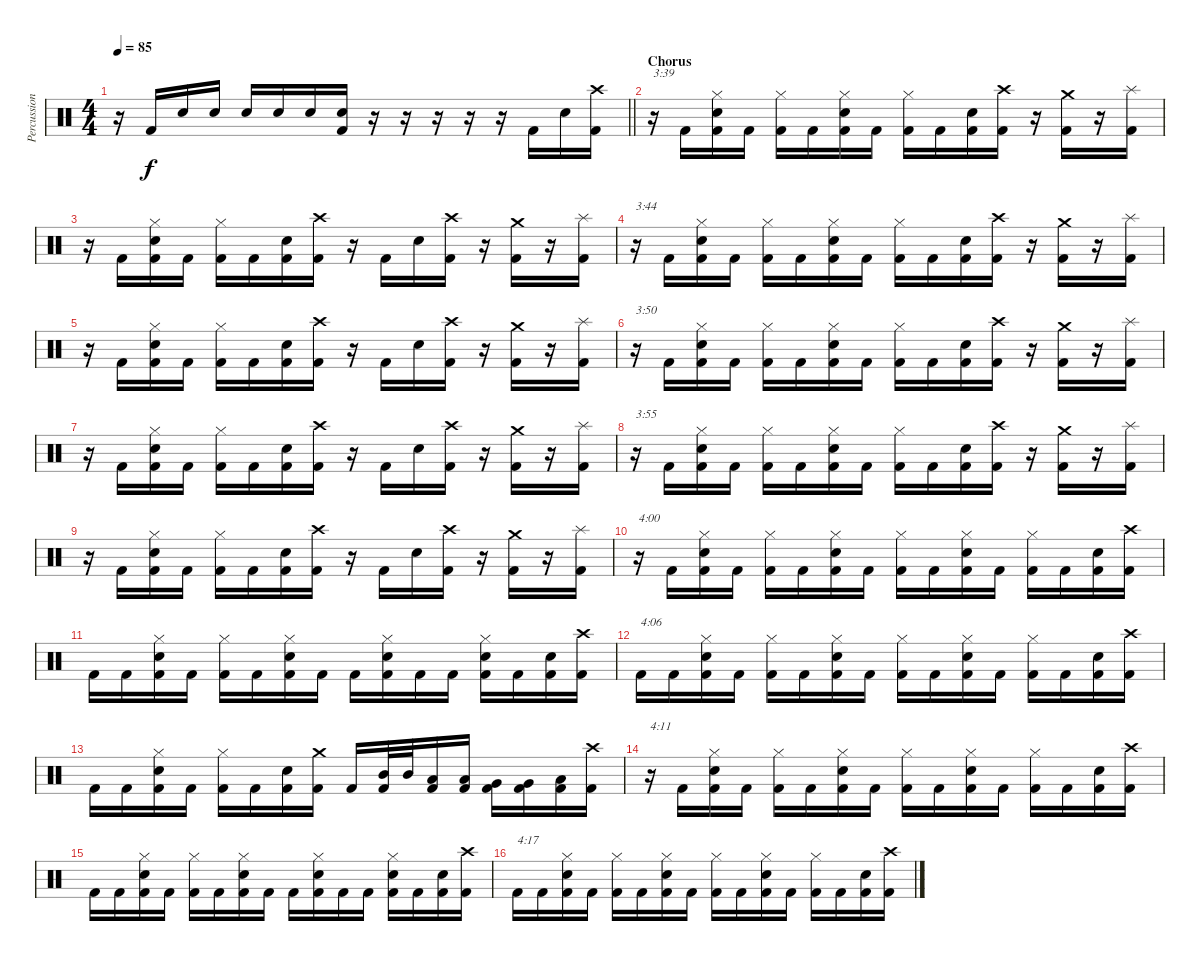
\track ("Percussion" "Percussion") {instrument percussion}
\staff {score}
\articulation defaults
\ts (4 4)
\tempo 85
\clef neutral
\barLineRight lightlight
\ks c
r.16{dy f} "Kick (hit) 2".16 "Snare (hit) 2".16 "Snare (hit) 2".16 "Snare (hit) 2".16 "Snare (hit) 2".16 "Snare (hit) 2".16 ("Snare (hit) 2" "Kick (hit) 2").16 r.16 r.16 r.16 r.16 r.16 "Kick (hit) 2".16 "Snare (hit) 2".16 ("Crash high (hit)" "Kick (hit) 2").16 |
\section ("" "Chorus")
r.16{txt "3:39"} "Kick (hit) 2".16 ("Hi-Hat (closed)" "Snare (hit) 2" "Kick (hit) 2").16 "Kick (hit) 2".16 ("Hi-Hat (closed)" "Kick (hit) 2").16 "Kick (hit) 2".16 ("Hi-Hat (closed)" "Snare (hit) 2" "Kick (hit) 2").16 "Kick (hit) 2".16 ("Hi-Hat (closed)" "Kick (hit) 2").16 "Kick (hit) 2".16 ("Snare (hit) 2" "Kick (hit) 2").16 ("Crash high (hit)" "Kick (hit) 2").16 r.16 ("Crash medium (hit)" "Kick (hit) 2").16 r.16 ("Splash (hit)" "Kick (hit) 2").16 |
r.16 "Kick (hit) 2".16 ("Hi-Hat (closed)" "Snare (hit) 2" "Kick (hit) 2").16 "Kick (hit) 2".16 ("Hi-Hat (closed)" "Kick (hit) 2").16 "Kick (hit) 2".16 ("Snare (hit) 2" "Kick (hit) 2").16 ("Crash high (hit)" "Kick (hit) 2").16 r.16 "Kick (hit) 2".16 "Snare (hit) 2".16 ("Crash high (hit)" "Kick (hit) 2").16 r.16 ("Crash medium (hit)" "Kick (hit) 2").16 r.16 ("Splash (hit)" "Kick (hit) 2").16 |
r.16{txt "3:44"} "Kick (hit) 2".16 ("Hi-Hat (closed)" "Snare (hit) 2" "Kick (hit) 2").16 "Kick (hit) 2".16 ("Hi-Hat (closed)" "Kick (hit) 2").16 "Kick (hit) 2".16 ("Hi-Hat (closed)" "Snare (hit) 2" "Kick (hit) 2").16 "Kick (hit) 2".16 ("Hi-Hat (closed)" "Kick (hit) 2").16 "Kick (hit) 2".16 ("Snare (hit) 2" "Kick (hit) 2").16 ("Crash high (hit)" "Kick (hit) 2").16 r.16 ("Crash medium (hit)" "Kick (hit) 2").16 r.16 ("Splash (hit)" "Kick (hit) 2").16 |
r.16 "Kick (hit) 2".16 ("Hi-Hat (closed)" "Snare (hit) 2" "Kick (hit) 2").16 "Kick (hit) 2".16 ("Hi-Hat (closed)" "Kick (hit) 2").16 "Kick (hit) 2".16 ("Snare (hit) 2" "Kick (hit) 2").16 ("Crash high (hit)" "Kick (hit) 2").16 r.16 "Kick (hit) 2".16 "Snare (hit) 2".16 ("Crash high (hit)" "Kick (hit) 2").16 r.16 ("Crash medium (hit)" "Kick (hit) 2").16 r.16 ("Splash (hit)" "Kick (hit) 2").16 |
r.16{txt "3:50"} "Kick (hit) 2".16 ("Hi-Hat (closed)" "Snare (hit) 2" "Kick (hit) 2").16 "Kick (hit) 2".16 ("Hi-Hat (closed)" "Kick (hit) 2").16 "Kick (hit) 2".16 ("Hi-Hat (closed)" "Snare (hit) 2" "Kick (hit) 2").16 "Kick (hit) 2".16 ("Hi-Hat (closed)" "Kick (hit) 2").16 "Kick (hit) 2".16 ("Snare (hit) 2" "Kick (hit) 2").16 ("Crash high (hit)" "Kick (hit) 2").16 r.16 ("Crash medium (hit)" "Kick (hit) 2").16 r.16 ("Splash (hit)" "Kick (hit) 2").16 |
r.16 "Kick (hit) 2".16 ("Hi-Hat (closed)" "Snare (hit) 2" "Kick (hit) 2").16 "Kick (hit) 2".16 ("Hi-Hat (closed)" "Kick (hit) 2").16 "Kick (hit) 2".16 ("Snare (hit) 2" "Kick (hit) 2").16 ("Crash high (hit)" "Kick (hit) 2").16 r.16 "Kick (hit) 2".16 "Snare (hit) 2".16 ("Crash high (hit)" "Kick (hit) 2").16 r.16 ("Crash medium (hit)" "Kick (hit) 2").16 r.16 ("Splash (hit)" "Kick (hit) 2").16 |
r.16{txt "3:55"} "Kick (hit) 2".16 ("Hi-Hat (closed)" "Snare (hit) 2" "Kick (hit) 2").16 "Kick (hit) 2".16 ("Hi-Hat (closed)" "Kick (hit) 2").16 "Kick (hit) 2".16 ("Hi-Hat (closed)" "Snare (hit) 2" "Kick (hit) 2").16 "Kick (hit) 2".16 ("Hi-Hat (closed)" "Kick (hit) 2").16 "Kick (hit) 2".16 ("Snare (hit) 2" "Kick (hit) 2").16 ("Crash high (hit)" "Kick (hit) 2").16 r.16 ("Crash medium (hit)" "Kick (hit) 2").16 r.16 ("Splash (hit)" "Kick (hit) 2").16 |
r.16 "Kick (hit) 2".16 ("Hi-Hat (closed)" "Snare (hit) 2" "Kick (hit) 2").16 "Kick (hit) 2".16 ("Hi-Hat (closed)" "Kick (hit) 2").16 "Kick (hit) 2".16 ("Snare (hit) 2" "Kick (hit) 2").16 ("Crash high (hit)" "Kick (hit) 2").16 r.16 "Kick (hit) 2".16 "Snare (hit) 2".16 ("Crash high (hit)" "Kick (hit) 2").16 r.16 ("Crash medium (hit)" "Kick (hit) 2").16 r.16 ("Splash (hit)" "Kick (hit) 2").16 |
r.16{txt "4:00"} "Kick (hit) 2".16 ("Hi-Hat (closed)" "Snare (hit) 2" "Kick (hit) 2").16 "Kick (hit) 2".16 ("Hi-Hat (closed)" "Kick (hit) 2").16 "Kick (hit) 2".16 ("Hi-Hat (closed)" "Snare (hit) 2" "Kick (hit) 2").16 "Kick (hit) 2".16 ("Hi-Hat (closed)" "Kick (hit) 2").16 "Kick (hit) 2".16 ("Hi-Hat (closed)" "Snare (hit) 2" "Kick (hit) 2").16 "Kick (hit) 2".16 ("Hi-Hat (closed)" "Kick (hit) 2").16 "Kick (hit) 2".16 ("Snare (hit) 2" "Kick (hit) 2").16 ("Crash high (hit)" "Kick (hit) 2").16 |
"Kick (hit) 2".16 "Kick (hit) 2".16 ("Hi-Hat (closed)" "Snare (hit) 2" "Kick (hit) 2").16 "Kick (hit) 2".16 ("Hi-Hat (closed)" "Kick (hit) 2").16 "Kick (hit) 2".16 ("Hi-Hat (closed)" "Snare (hit) 2" "Kick (hit) 2").16 "Kick (hit) 2".16 "Kick (hit) 2".16 ("Hi-Hat (closed)" "Snare (hit) 2" "Kick (hit) 2").16 "Kick (hit) 2".16 "Kick (hit) 2".16 ("Hi-Hat (closed)" "Snare (hit) 2" "Kick (hit) 2").16 "Kick (hit) 2".16 ("Snare (hit) 2" "Kick (hit) 2").16 ("Crash high (hit)" "Kick (hit) 2").16 |
"Kick (hit) 2".16{txt "4:06"} "Kick (hit) 2".16 ("Hi-Hat (closed)" "Snare (hit) 2" "Kick (hit) 2").16 "Kick (hit) 2".16 ("Hi-Hat (closed)" "Kick (hit) 2").16 "Kick (hit) 2".16 ("Hi-Hat (closed)" "Snare (hit) 2" "Kick (hit) 2").16 "Kick (hit) 2".16 ("Hi-Hat (closed)" "Kick (hit) 2").16 "Kick (hit) 2".16 ("Hi-Hat (closed)" "Snare (hit) 2" "Kick (hit) 2").16 "Kick (hit) 2".16 ("Hi-Hat (closed)" "Kick (hit) 2").16 "Kick (hit) 2".16 ("Snare (hit) 2" "Kick (hit) 2").16 ("Crash high (hit)" "Kick (hit) 2").16 |
"Kick (hit) 2".16 "Kick (hit) 2".16 ("Hi-Hat (closed)" "Snare (hit) 2" "Kick (hit) 2").16 "Kick (hit) 2".16 ("Hi-Hat (closed)" "Kick (hit) 2").16 "Kick (hit) 2".16 ("Snare (hit) 2" "Kick (hit) 2").16 ("Crash medium (hit)" "Kick (hit) 2").16 "Kick (hit) 2".16 ("Mid Tom (hit)" "Kick (hit) 2").32 "Mid Tom (hit)".32 ("Low Tom (hit)" "Kick (hit) 2").16 ("Low Tom (hit)" "Kick (hit) 2").16 ("Very Low Tom (hit)" "Kick (hit) 2").16 ("Very Low Tom (hit)" "Kick (hit) 2").16 ("Low Floor Tom (hit)" "Kick (hit) 2").16 ("Crash high (hit)" "Kick (hit) 2").16 |
r.16{txt "4:11"} "Kick (hit) 2".16 ("Hi-Hat (closed)" "Snare (hit) 2" "Kick (hit) 2").16 "Kick (hit) 2".16 ("Hi-Hat (closed)" "Kick (hit) 2").16 "Kick (hit) 2".16 ("Hi-Hat (closed)" "Snare (hit) 2" "Kick (hit) 2").16 "Kick (hit) 2".16 ("Hi-Hat (closed)" "Kick (hit) 2").16 "Kick (hit) 2".16 ("Hi-Hat (closed)" "Snare (hit) 2" "Kick (hit) 2").16 "Kick (hit) 2".16 ("Hi-Hat (closed)" "Kick (hit) 2").16 "Kick (hit) 2".16 ("Snare (hit) 2" "Kick (hit) 2").16 ("Crash high (hit)" "Kick (hit) 2").16 |
"Kick (hit) 2".16 "Kick (hit) 2".16 ("Hi-Hat (closed)" "Snare (hit) 2" "Kick (hit) 2").16 "Kick (hit) 2".16 ("Hi-Hat (closed)" "Kick (hit) 2").16 "Kick (hit) 2".16 ("Hi-Hat (closed)" "Snare (hit) 2" "Kick (hit) 2").16 "Kick (hit) 2".16 "Kick (hit) 2".16 ("Hi-Hat (closed)" "Snare (hit) 2" "Kick (hit) 2").16 "Kick (hit) 2".16 "Kick (hit) 2".16 ("Hi-Hat (closed)" "Snare (hit) 2" "Kick (hit) 2").16 "Kick (hit) 2".16 ("Snare (hit) 2" "Kick (hit) 2").16 ("Crash high (hit)" "Kick (hit) 2").16 |
"Kick (hit) 2".16{txt "4:17"} "Kick (hit) 2".16 ("Hi-Hat (closed)" "Snare (hit) 2" "Kick (hit) 2").16 "Kick (hit) 2".16 ("Hi-Hat (closed)" "Kick (hit) 2").16 "Kick (hit) 2".16 ("Hi-Hat (closed)" "Snare (hit) 2" "Kick (hit) 2").16 "Kick (hit) 2".16 ("Hi-Hat (closed)" "Kick (hit) 2").16 "Kick (hit) 2".16 ("Hi-Hat (closed)" "Snare (hit) 2" "Kick (hit) 2").16 "Kick (hit) 2".16 ("Hi-Hat (closed)" "Kick (hit) 2").16 "Kick (hit) 2".16 ("Snare (hit) 2" "Kick (hit) 2").16 ("Crash high (hit)" "Kick (hit) 2").16
